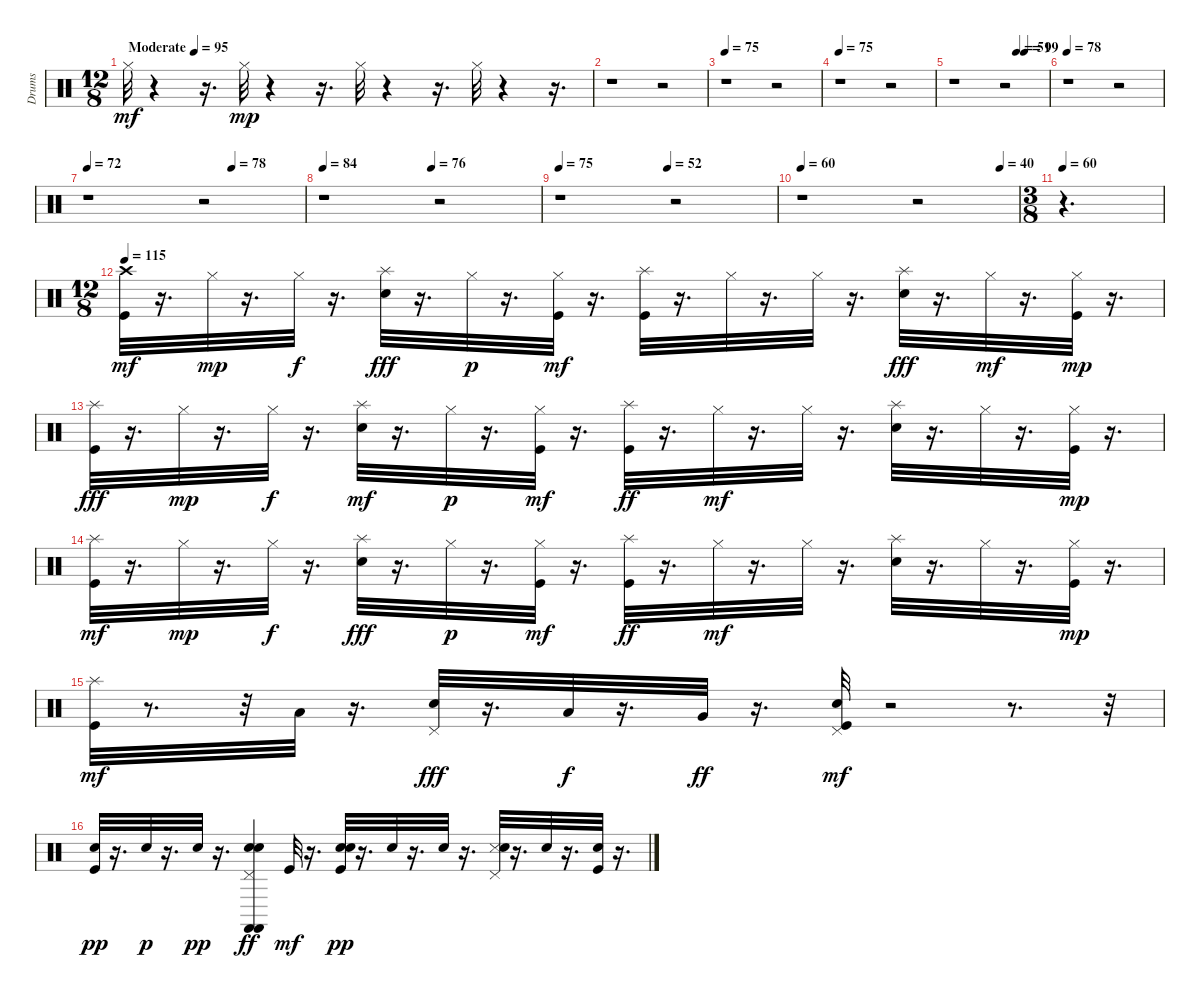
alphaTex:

\track ("Drums" "Drums") {instrument percussion}
\staff {score}
\articulation defaults
\ts (12 8)
\tempo (95 "Moderate")
\clef neutral
\ks c "Hi-Hat (closed)".32{dy mf}
r.4 r.16{d} "Hi-Hat (closed)".32{dy mp} r.4 r.16{d} "Hi-Hat (closed)".32 r.4 r.16{d} "Hi-Hat (closed)".32 r.4 r.16{d} |
r.1 r.2 |
\tempo 75
r.1 r.2 |
\tempo 75
r.1 r.2 |
\tempo (51 0.6666666666666666)
\tempo (99 0.75)
r.1 r.2 |
\tempo 78
r.1 r.2 |
\tempo 72
\tempo (78 0.6666666666666666)
r.1 r.2 |
\tempo 84
\tempo (76 0.5)
r.1 r.2 |
\tempo 75
\tempo (52 0.5)
r.1 r.2 |
\tempo 60
\tempo (40 0.9166666666666666)
r.1 r.2 |
\ts (3 8)
\tempo 60
r.4{d} |
\ts (12 8)
\tempo 115
("Kick (hit)" "Crash high (hit)").32{dy mf} r.16{d} "Hi-Hat (closed)".32{dy mp} r.16{d} "Hi-Hat (closed)".32{dy f} r.16{d} ("Electric Snare (hit)" "Splash (hit)").32{dy fff} r.16{d} "Hi-Hat (closed)".32{dy p} r.16{d} ("Kick (hit)" "Hi-Hat (closed)").32{dy mf} r.16{d} ("Kick (hit)" "Splash (hit)").32 r.16{d} "Hi-Hat (closed)".32 r.16{d} "Hi-Hat (closed)".32 r.16{d} ("Electric Snare (hit)" "Splash (hit)").32{dy fff} r.16{d} "Hi-Hat (closed)".32{dy mf} r.16{d} ("Kick (hit)" "Hi-Hat (closed)").32{dy mp} r.16{d} |
("Kick (hit)" "Splash (hit)").32{dy fff} r.16{d} "Hi-Hat (closed)".32{dy mp} r.16{d} "Hi-Hat (closed)".32{dy f} r.16{d} ("Electric Snare (hit)" "Splash (hit)").32{dy mf} r.16{d} "Hi-Hat (closed)".32{dy p} r.16{d} ("Kick (hit)" "Hi-Hat (closed)").32{dy mf} r.16{d} ("Kick (hit)" "Splash (hit)").32{dy ff} r.16{d} "Hi-Hat (closed)".32{dy mf} r.16{d} "Hi-Hat (closed)".32 r.16{d} ("Electric Snare (hit)" "Splash (hit)").32 r.16{d} "Hi-Hat (closed)".32 r.16{d} ("Kick (hit)" "Hi-Hat (closed)").32{dy mp} r.16{d} |
("Kick (hit)" "Splash (hit)").32{dy mf} r.16{d} "Hi-Hat (closed)".32{dy mp} r.16{d} "Hi-Hat (closed)".32{dy f} r.16{d} ("Electric Snare (hit)" "Splash (hit)").32{dy fff} r.16{d} "Hi-Hat (closed)".32{dy p} r.16{d} ("Kick (hit)" "Hi-Hat (closed)").32{dy mf} r.16{d} ("Kick (hit)" "Splash (hit)").32{dy ff} r.16{d} "Hi-Hat (closed)".32{dy mf} r.16{d} "Hi-Hat (closed)".32 r.16{d} ("Electric Snare (hit)" "Splash (hit)").32 r.16{d} "Hi-Hat (closed)".32 r.16{d} ("Kick (hit)" "Hi-Hat (closed)").32{dy mp} r.16{d} |
("Kick (hit)" "Splash (hit)").32{dy mf} r.8{d} r.32 "Low Tom (hit)".32 r.16{d} ("Electric Snare (hit)" "Pedal Hi-Hat (hit)").32{dy fff} r.16{d} "Low Tom (hit)".32{dy f} r.16{d} "Very Low Tom (hit)".32{dy ff} r.16{d} ("Kick (hit)" "Electric Snare (hit)" "Pedal Hi-Hat (hit)").32{dy mf} r.2 r.8{d} r.32 |
("Kick (hit)" "Electric Snare (hit)").32{dy pp} r.16{d} "Snare (hit) 2".32{dy p} r.16{d} "Snare (hit) 2".32{dy pp} r.16{d} ("Castanets (hit)" "Snare (hit) 2" "Electric Snare (hit)" "Pedal Hi-Hat (hit)" "Castanets (hit)").4{dy ff} "Kick (hit)".32{dy mf} r.16{d} ("Kick (hit)" "Snare (hit) 2" "Electric Snare (hit)").32{dy pp} r.16{d} "Snare (hit) 2".32 r.16{d} "Snare (hit) 2".32 r.16{d} ("Snare (side stick) 3" "Electric Snare (hit)" "Pedal Hi-Hat (hit)").32 r.16{d} "Snare (hit) 2".32 r.16{d} ("Kick (hit)" "Snare (hit) 2").32 r.16{d}
